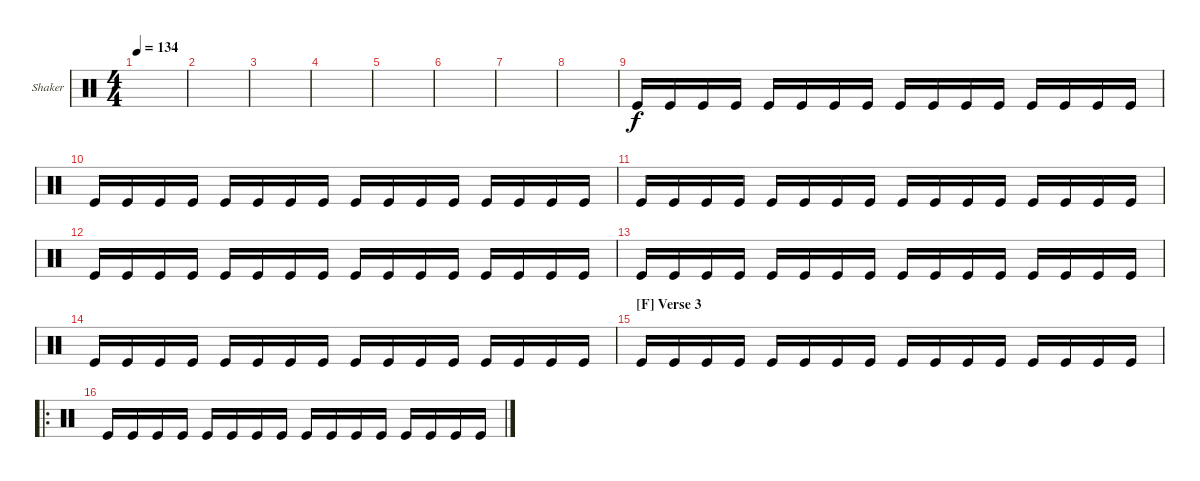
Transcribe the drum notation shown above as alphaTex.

\defaultSystemsLayout 4
\bracketExtendMode groupsimilarinstruments
\firstSystemTrackNameOrientation horizontal
\otherSystemsTrackNameOrientation horizontal
\track ("Shaker" "Shaker") {instrument percussion}
\staff {score}
\articulation defaults
\ts (4 4)
\tempo 134
\clef neutral
\scale
0.333333
\ks c
|
\scale
0.333333 |
\scale
0.333333 |
\scale
0.333333 |
\scale
0.333333 |
\scale
0.333333 |
\scale
0.333333 |
\scale
0.333333 |
\scale
0.333333 "Kick (hit)".16 "Kick (hit)".16 "Kick (hit)".16 "Kick (hit)".16 "Kick (hit)".16 "Kick (hit)".16 "Kick (hit)".16 "Kick (hit)".16 "Kick (hit)".16 "Kick (hit)".16 "Kick (hit)".16 "Kick (hit)".16 "Kick (hit)".16 "Kick (hit)".16 "Kick (hit)".16 "Kick (hit)".16 |
"Kick (hit)".16 "Kick (hit)".16 "Kick (hit)".16 "Kick (hit)".16 "Kick (hit)".16 "Kick (hit)".16 "Kick (hit)".16 "Kick (hit)".16 "Kick (hit)".16 "Kick (hit)".16 "Kick (hit)".16 "Kick (hit)".16 "Kick (hit)".16 "Kick (hit)".16 "Kick (hit)".16 "Kick (hit)".16 |
"Kick (hit)".16 "Kick (hit)".16 "Kick (hit)".16 "Kick (hit)".16 "Kick (hit)".16 "Kick (hit)".16 "Kick (hit)".16 "Kick (hit)".16 "Kick (hit)".16 "Kick (hit)".16 "Kick (hit)".16 "Kick (hit)".16 "Kick (hit)".16 "Kick (hit)".16 "Kick (hit)".16 "Kick (hit)".16 |
"Kick (hit)".16 "Kick (hit)".16 "Kick (hit)".16 "Kick (hit)".16 "Kick (hit)".16 "Kick (hit)".16 "Kick (hit)".16 "Kick (hit)".16 "Kick (hit)".16 "Kick (hit)".16 "Kick (hit)".16 "Kick (hit)".16 "Kick (hit)".16 "Kick (hit)".16 "Kick (hit)".16 "Kick (hit)".16 |
"Kick (hit)".16 "Kick (hit)".16 "Kick (hit)".16 "Kick (hit)".16 "Kick (hit)".16 "Kick (hit)".16 "Kick (hit)".16 "Kick (hit)".16 "Kick (hit)".16 "Kick (hit)".16 "Kick (hit)".16 "Kick (hit)".16 "Kick (hit)".16 "Kick (hit)".16 "Kick (hit)".16 "Kick (hit)".16 |
"Kick (hit)".16 "Kick (hit)".16 "Kick (hit)".16 "Kick (hit)".16 "Kick (hit)".16 "Kick (hit)".16 "Kick (hit)".16 "Kick (hit)".16 "Kick (hit)".16 "Kick (hit)".16 "Kick (hit)".16 "Kick (hit)".16 "Kick (hit)".16 "Kick (hit)".16 "Kick (hit)".16 "Kick (hit)".16 |
\section ("F" "Verse 3")
"Kick (hit)".16 "Kick (hit)".16 "Kick (hit)".16 "Kick (hit)".16 "Kick (hit)".16 "Kick (hit)".16 "Kick (hit)".16 "Kick (hit)".16 "Kick (hit)".16 "Kick (hit)".16 "Kick (hit)".16 "Kick (hit)".16 "Kick (hit)".16 "Kick (hit)".16 "Kick (hit)".16 "Kick (hit)".16 |
\ro "Kick (hit)".16 "Kick (hit)".16 "Kick (hit)".16 "Kick (hit)".16 "Kick (hit)".16 "Kick (hit)".16 "Kick (hit)".16 "Kick (hit)".16 "Kick (hit)".16 "Kick (hit)".16 "Kick (hit)".16 "Kick (hit)".16 "Kick (hit)".16 "Kick (hit)".16 "Kick (hit)".16 "Kick (hit)".16
